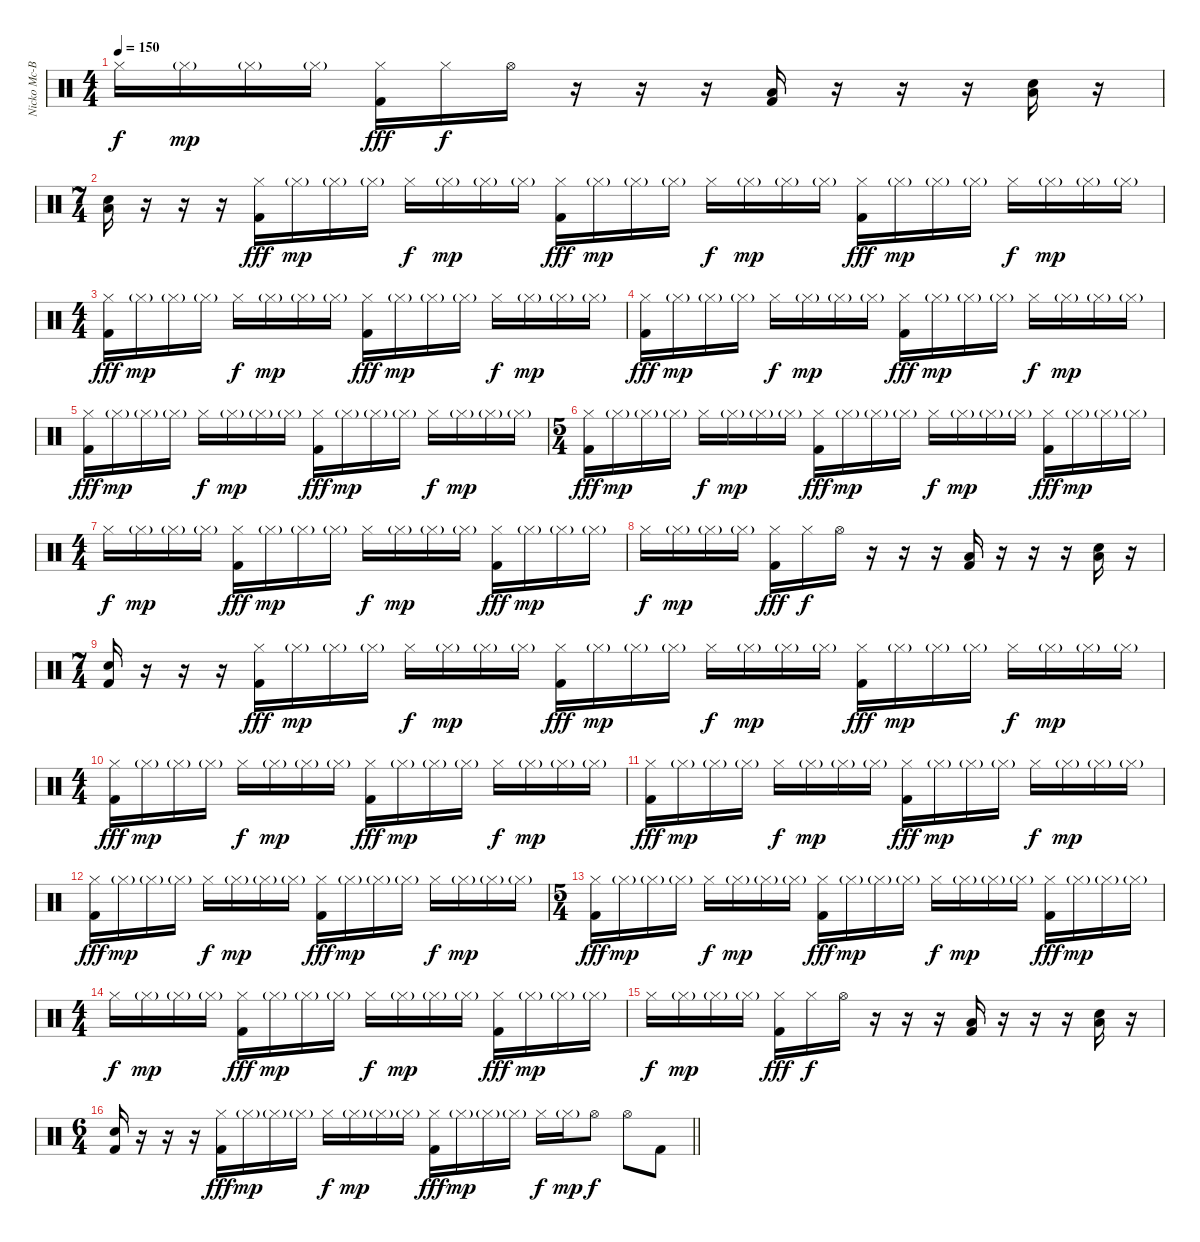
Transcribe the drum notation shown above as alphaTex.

\track ("Nicko Mc-Brain" "Nicko Mc-B") {instrument percussion}
\staff {score}
\articulation defaults
\ts (4 4)
\tempo 150
\clef neutral
\ks c "Hi-Hat (closed)".16{dy f} "Hi-Hat (closed)"{g}.16{dy mp} "Hi-Hat (closed)"{g}.16 "Hi-Hat (closed)"{g}.16
("Hi-Hat (closed)" "Kick (hit) 2").16{dy fff} "Hi-Hat (closed)".16{dy f} "Hi-Hat (open)".16 r.16 r.16 r.16 ("Low Floor Tom (hit)" "Kick (hit) 2").16 r.16 r.16 r.16 ("Low Floor Tom (hit)" "Snare (hit) 2").16 r.16 |
\ts (7 4)
("Low Floor Tom (hit)" "Snare (hit) 2").16 r.16 r.16 r.16 ("Hi-Hat (closed)" "Kick (hit) 2").16{dy fff} "Hi-Hat (closed)"{g}.16{dy mp} "Hi-Hat (closed)"{g}.16 "Hi-Hat (closed)"{g}.16 "Hi-Hat (closed)".16{dy f} "Hi-Hat (closed)"{g}.16{dy mp} "Hi-Hat (closed)"{g}.16 "Hi-Hat (closed)"{g}.16 ("Hi-Hat (closed)" "Kick (hit) 2").16{dy fff} "Hi-Hat (closed)"{g}.16{dy mp} "Hi-Hat (closed)"{g}.16 "Hi-Hat (closed)"{g}.16 "Hi-Hat (closed)".16{dy f} "Hi-Hat (closed)"{g}.16{dy mp} "Hi-Hat (closed)"{g}.16 "Hi-Hat (closed)"{g}.16 ("Hi-Hat (closed)" "Kick (hit) 2").16{dy fff} "Hi-Hat (closed)"{g}.16{dy mp} "Hi-Hat (closed)"{g}.16 "Hi-Hat (closed)"{g}.16 "Hi-Hat (closed)".16{dy f} "Hi-Hat (closed)"{g}.16{dy mp} "Hi-Hat (closed)"{g}.16 "Hi-Hat (closed)"{g}.16 |
\ts (4 4)
("Hi-Hat (closed)" "Kick (hit) 2").16{dy fff} "Hi-Hat (closed)"{g}.16{dy mp} "Hi-Hat (closed)"{g}.16 "Hi-Hat (closed)"{g}.16 "Hi-Hat (closed)".16{dy f} "Hi-Hat (closed)"{g}.16{dy mp} "Hi-Hat (closed)"{g}.16 "Hi-Hat (closed)"{g}.16 ("Hi-Hat (closed)" "Kick (hit) 2").16{dy fff} "Hi-Hat (closed)"{g}.16{dy mp} "Hi-Hat (closed)"{g}.16 "Hi-Hat (closed)"{g}.16 "Hi-Hat (closed)".16{dy f} "Hi-Hat (closed)"{g}.16{dy mp} "Hi-Hat (closed)"{g}.16 "Hi-Hat (closed)"{g}.16 |
("Hi-Hat (closed)" "Kick (hit) 2").16{dy fff} "Hi-Hat (closed)"{g}.16{dy mp} "Hi-Hat (closed)"{g}.16 "Hi-Hat (closed)"{g}.16 "Hi-Hat (closed)".16{dy f} "Hi-Hat (closed)"{g}.16{dy mp} "Hi-Hat (closed)"{g}.16 "Hi-Hat (closed)"{g}.16 ("Hi-Hat (closed)" "Kick (hit) 2").16{dy fff} "Hi-Hat (closed)"{g}.16{dy mp} "Hi-Hat (closed)"{g}.16 "Hi-Hat (closed)"{g}.16 "Hi-Hat (closed)".16{dy f} "Hi-Hat (closed)"{g}.16{dy mp} "Hi-Hat (closed)"{g}.16 "Hi-Hat (closed)"{g}.16 |
("Hi-Hat (closed)" "Kick (hit) 2").16{dy fff} "Hi-Hat (closed)"{g}.16{dy mp} "Hi-Hat (closed)"{g}.16 "Hi-Hat (closed)"{g}.16 "Hi-Hat (closed)".16{dy f} "Hi-Hat (closed)"{g}.16{dy mp} "Hi-Hat (closed)"{g}.16 "Hi-Hat (closed)"{g}.16 ("Hi-Hat (closed)" "Kick (hit) 2").16{dy fff} "Hi-Hat (closed)"{g}.16{dy mp} "Hi-Hat (closed)"{g}.16 "Hi-Hat (closed)"{g}.16 "Hi-Hat (closed)".16{dy f} "Hi-Hat (closed)"{g}.16{dy mp} "Hi-Hat (closed)"{g}.16 "Hi-Hat (closed)"{g}.16 |
\ts (5 4)
("Hi-Hat (closed)" "Kick (hit) 2").16{dy fff} "Hi-Hat (closed)"{g}.16{dy mp} "Hi-Hat (closed)"{g}.16 "Hi-Hat (closed)"{g}.16 "Hi-Hat (closed)".16{dy f} "Hi-Hat (closed)"{g}.16{dy mp} "Hi-Hat (closed)"{g}.16 "Hi-Hat (closed)"{g}.16 ("Hi-Hat (closed)" "Kick (hit) 2").16{dy fff} "Hi-Hat (closed)"{g}.16{dy mp} "Hi-Hat (closed)"{g}.16 "Hi-Hat (closed)"{g}.16 "Hi-Hat (closed)".16{dy f} "Hi-Hat (closed)"{g}.16{dy mp} "Hi-Hat (closed)"{g}.16 "Hi-Hat (closed)"{g}.16 ("Hi-Hat (closed)" "Kick (hit) 2").16{dy fff} "Hi-Hat (closed)"{g}.16{dy mp} "Hi-Hat (closed)"{g}.16 "Hi-Hat (closed)"{g}.16 |
\ts (4 4)
"Hi-Hat (closed)".16{dy f} "Hi-Hat (closed)"{g}.16{dy mp} "Hi-Hat (closed)"{g}.16 "Hi-Hat (closed)"{g}.16 ("Hi-Hat (closed)" "Kick (hit) 2").16{dy fff} "Hi-Hat (closed)"{g}.16{dy mp} "Hi-Hat (closed)"{g}.16 "Hi-Hat (closed)"{g}.16 "Hi-Hat (closed)".16{dy f} "Hi-Hat (closed)"{g}.16{dy mp} "Hi-Hat (closed)"{g}.16 "Hi-Hat (closed)"{g}.16 ("Hi-Hat (closed)" "Kick (hit) 2").16{dy fff} "Hi-Hat (closed)"{g}.16{dy mp} "Hi-Hat (closed)"{g}.16 "Hi-Hat (closed)"{g}.16 |
"Hi-Hat (closed)".16{dy f} "Hi-Hat (closed)"{g}.16{dy mp} "Hi-Hat (closed)"{g}.16 "Hi-Hat (closed)"{g}.16 ("Hi-Hat (closed)" "Kick (hit) 2").16{dy fff} "Hi-Hat (closed)".16{dy f} "Hi-Hat (open)".16 r.16 r.16 r.16 ("Low Floor Tom (hit)" "Kick (hit) 2").16 r.16 r.16 r.16 ("Low Floor Tom (hit)" "Snare (hit) 2").16 r.16 |
\ts (7 4)
("Snare (hit) 2" "Kick (hit) 2").16 r.16 r.16 r.16 ("Hi-Hat (closed)" "Kick (hit) 2").16{dy fff} "Hi-Hat (closed)"{g}.16{dy mp} "Hi-Hat (closed)"{g}.16 "Hi-Hat (closed)"{g}.16 "Hi-Hat (closed)".16{dy f} "Hi-Hat (closed)"{g}.16{dy mp} "Hi-Hat (closed)"{g}.16 "Hi-Hat (closed)"{g}.16 ("Hi-Hat (closed)" "Kick (hit) 2").16{dy fff} "Hi-Hat (closed)"{g}.16{dy mp} "Hi-Hat (closed)"{g}.16 "Hi-Hat (closed)"{g}.16 "Hi-Hat (closed)".16{dy f} "Hi-Hat (closed)"{g}.16{dy mp} "Hi-Hat (closed)"{g}.16 "Hi-Hat (closed)"{g}.16 ("Hi-Hat (closed)" "Kick (hit) 2").16{dy fff} "Hi-Hat (closed)"{g}.16{dy mp} "Hi-Hat (closed)"{g}.16 "Hi-Hat (closed)"{g}.16 "Hi-Hat (closed)".16{dy f} "Hi-Hat (closed)"{g}.16{dy mp} "Hi-Hat (closed)"{g}.16 "Hi-Hat (closed)"{g}.16 |
\ts (4 4)
("Hi-Hat (closed)" "Kick (hit) 2").16{dy fff} "Hi-Hat (closed)"{g}.16{dy mp} "Hi-Hat (closed)"{g}.16 "Hi-Hat (closed)"{g}.16 "Hi-Hat (closed)".16{dy f} "Hi-Hat (closed)"{g}.16{dy mp} "Hi-Hat (closed)"{g}.16 "Hi-Hat (closed)"{g}.16 ("Hi-Hat (closed)" "Kick (hit) 2").16{dy fff} "Hi-Hat (closed)"{g}.16{dy mp} "Hi-Hat (closed)"{g}.16 "Hi-Hat (closed)"{g}.16 "Hi-Hat (closed)".16{dy f} "Hi-Hat (closed)"{g}.16{dy mp} "Hi-Hat (closed)"{g}.16 "Hi-Hat (closed)"{g}.16 |
("Hi-Hat (closed)" "Kick (hit) 2").16{dy fff} "Hi-Hat (closed)"{g}.16{dy mp} "Hi-Hat (closed)"{g}.16 "Hi-Hat (closed)"{g}.16 "Hi-Hat (closed)".16{dy f} "Hi-Hat (closed)"{g}.16{dy mp} "Hi-Hat (closed)"{g}.16 "Hi-Hat (closed)"{g}.16 ("Hi-Hat (closed)" "Kick (hit) 2").16{dy fff} "Hi-Hat (closed)"{g}.16{dy mp} "Hi-Hat (closed)"{g}.16 "Hi-Hat (closed)"{g}.16 "Hi-Hat (closed)".16{dy f} "Hi-Hat (closed)"{g}.16{dy mp} "Hi-Hat (closed)"{g}.16 "Hi-Hat (closed)"{g}.16 |
("Hi-Hat (closed)" "Kick (hit) 2").16{dy fff} "Hi-Hat (closed)"{g}.16{dy mp} "Hi-Hat (closed)"{g}.16 "Hi-Hat (closed)"{g}.16 "Hi-Hat (closed)".16{dy f} "Hi-Hat (closed)"{g}.16{dy mp} "Hi-Hat (closed)"{g}.16 "Hi-Hat (closed)"{g}.16 ("Hi-Hat (closed)" "Kick (hit) 2").16{dy fff} "Hi-Hat (closed)"{g}.16{dy mp} "Hi-Hat (closed)"{g}.16 "Hi-Hat (closed)"{g}.16 "Hi-Hat (closed)".16{dy f} "Hi-Hat (closed)"{g}.16{dy mp} "Hi-Hat (closed)"{g}.16 "Hi-Hat (closed)"{g}.16 |
\ts (5 4)
("Hi-Hat (closed)" "Kick (hit) 2").16{dy fff} "Hi-Hat (closed)"{g}.16{dy mp} "Hi-Hat (closed)"{g}.16 "Hi-Hat (closed)"{g}.16 "Hi-Hat (closed)".16{dy f} "Hi-Hat (closed)"{g}.16{dy mp} "Hi-Hat (closed)"{g}.16 "Hi-Hat (closed)"{g}.16 ("Hi-Hat (closed)" "Kick (hit) 2").16{dy fff} "Hi-Hat (closed)"{g}.16{dy mp} "Hi-Hat (closed)"{g}.16 "Hi-Hat (closed)"{g}.16 "Hi-Hat (closed)".16{dy f} "Hi-Hat (closed)"{g}.16{dy mp} "Hi-Hat (closed)"{g}.16 "Hi-Hat (closed)"{g}.16 ("Hi-Hat (closed)" "Kick (hit) 2").16{dy fff} "Hi-Hat (closed)"{g}.16{dy mp} "Hi-Hat (closed)"{g}.16 "Hi-Hat (closed)"{g}.16 |
\ts (4 4)
"Hi-Hat (closed)".16{dy f} "Hi-Hat (closed)"{g}.16{dy mp} "Hi-Hat (closed)"{g}.16 "Hi-Hat (closed)"{g}.16 ("Hi-Hat (closed)" "Kick (hit) 2").16{dy fff} "Hi-Hat (closed)"{g}.16{dy mp} "Hi-Hat (closed)"{g}.16 "Hi-Hat (closed)"{g}.16 "Hi-Hat (closed)".16{dy f} "Hi-Hat (closed)"{g}.16{dy mp} "Hi-Hat (closed)"{g}.16 "Hi-Hat (closed)"{g}.16 ("Hi-Hat (closed)" "Kick (hit) 2").16{dy fff} "Hi-Hat (closed)"{g}.16{dy mp} "Hi-Hat (closed)"{g}.16 "Hi-Hat (closed)"{g}.16 |
"Hi-Hat (closed)".16{dy f} "Hi-Hat (closed)"{g}.16{dy mp} "Hi-Hat (closed)"{g}.16 "Hi-Hat (closed)"{g}.16 ("Hi-Hat (closed)" "Kick (hit) 2").16{dy fff} "Hi-Hat (closed)".16{dy f} "Hi-Hat (open)".16 r.16 r.16 r.16 ("Low Floor Tom (hit)" "Kick (hit) 2").16 r.16 r.16 r.16 ("Low Floor Tom (hit)" "Snare (hit) 2").16 r.16 |
\ts (6 4)
\barLineRight lightlight
("Snare (hit) 2" "Kick (hit) 2").16 r.16 r.16 r.16 ("Hi-Hat (closed)" "Kick (hit) 2").16{dy fff} "Hi-Hat (closed)"{g}.16{dy mp} "Hi-Hat (closed)"{g}.16 "Hi-Hat (closed)"{g}.16 "Hi-Hat (closed)".16{dy f} "Hi-Hat (closed)"{g}.16{dy mp} "Hi-Hat (closed)"{g}.16 "Hi-Hat (closed)"{g}.16 ("Hi-Hat (closed)" "Kick (hit) 2").16{dy fff} "Hi-Hat (closed)"{g}.16{dy mp} "Hi-Hat (closed)"{g}.16 "Hi-Hat (closed)"{g}.16 "Hi-Hat (closed)".16{dy f} "Hi-Hat (closed)"{g}.16{dy mp} "Hi-Hat (open)".8{dy f} "Hi-Hat (open)".8 "Kick (hit) 2".8
